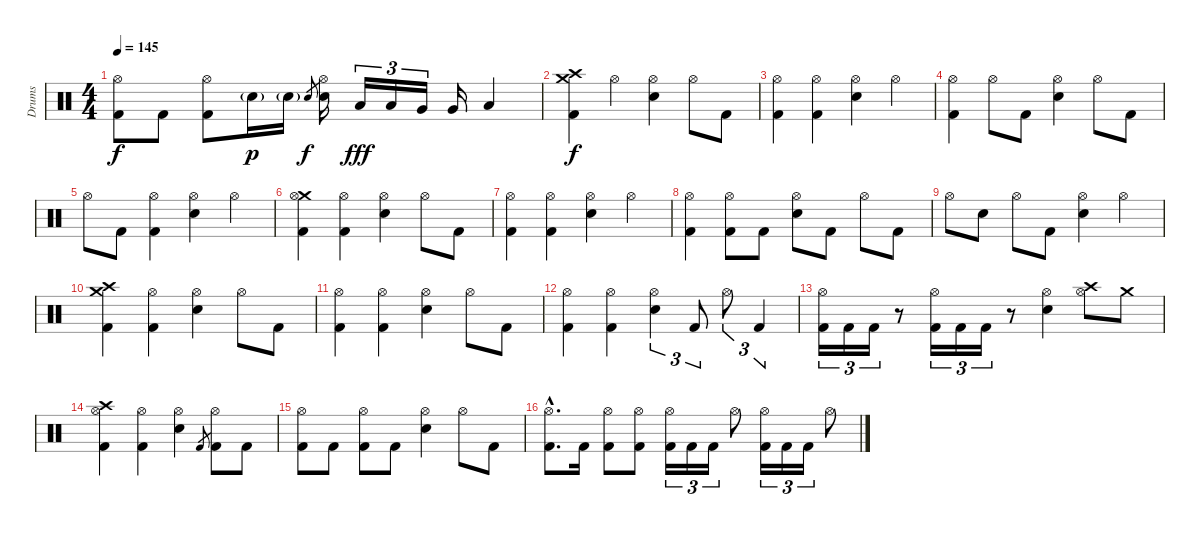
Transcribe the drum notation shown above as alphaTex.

\track ("Drums" "Drums") {instrument percussion}
\staff {score}
\articulation defaults
\ts (4 4)
\tempo 145
\clef neutral
\ks c
("Hi-Hat (open)" "Kick (hit) 2").8{dy f} "Kick (hit) 2".8 ("Hi-Hat (open)" "Kick (hit) 2").8 "Electric Snare (hit)"{g}.16{dy p} "Electric Snare (hit)"{g}.16 "Electric Snare (hit)".8{gr dy f} ("Hi-Hat (open)" "Electric Snare (hit)").16 "Low Tom (hit)".16{tu (3 2) dy fff} "Low Tom (hit)".16{tu (3 2)} "Very Low Tom (hit)".16{tu (3 2)} "Very Low Tom (hit)".16 "Low Floor Tom (hit)".4 |
("Crash medium (hit)" "Crash high (hit)" "Kick (hit) 2").4{dy f} "Hi-Hat (open)".4 ("Hi-Hat (open)" "Electric Snare (hit)").4 "Hi-Hat (open)".8 "Kick (hit) 2".8 |
("Hi-Hat (open)" "Kick (hit) 2").4 ("Hi-Hat (open)" "Kick (hit) 2").4 ("Hi-Hat (open)" "Electric Snare (hit)").4 "Hi-Hat (open)".4 |
("Hi-Hat (open)" "Kick (hit) 2").4 "Hi-Hat (open)".8 "Kick (hit) 2".8 ("Hi-Hat (open)" "Electric Snare (hit)").4 "Hi-Hat (open)".8 "Kick (hit) 2".8 |
"Hi-Hat (open)".8 "Kick (hit) 2".8 ("Hi-Hat (open)" "Kick (hit) 2").4 ("Hi-Hat (open)" "Electric Snare (hit)").4 "Hi-Hat (open)".4 |
("Crash medium (hit)" "Hi-Hat (open)" "Kick (hit) 2").4 ("Hi-Hat (open)" "Kick (hit) 2").4 ("Hi-Hat (open)" "Electric Snare (hit)").4 "Hi-Hat (open)".8 "Kick (hit) 2".8 |
("Hi-Hat (open)" "Kick (hit) 2").4 ("Hi-Hat (open)" "Kick (hit) 2").4 ("Hi-Hat (open)" "Electric Snare (hit)").4 "Hi-Hat (open)".4 |
("Hi-Hat (open)" "Kick (hit) 2").4 ("Hi-Hat (open)" "Kick (hit) 2").8 "Kick (hit) 2".8 ("Hi-Hat (open)" "Electric Snare (hit)").8 "Kick (hit) 2".8 "Hi-Hat (open)".8 "Kick (hit) 2".8 |
"Hi-Hat (open)".8 "Electric Snare (hit)".8 "Hi-Hat (open)".8 "Kick (hit) 2".8 ("Hi-Hat (open)" "Electric Snare (hit)").4 "Hi-Hat (open)".4 |
("Crash medium (hit)" "Crash high (hit)" "Kick (hit) 2").4 ("Hi-Hat (open)" "Kick (hit) 2").4 ("Hi-Hat (open)" "Electric Snare (hit)").4 "Hi-Hat (open)".8 "Kick (hit) 2".8 |
("Hi-Hat (open)" "Kick (hit) 2").4 ("Hi-Hat (open)" "Kick (hit) 2").4 ("Hi-Hat (open)" "Electric Snare (hit)").4 "Hi-Hat (open)".8 "Kick (hit) 2".8 |
("Hi-Hat (open)" "Kick (hit) 2").4 ("Hi-Hat (open)" "Kick (hit) 2").4 ("Hi-Hat (open)" "Electric Snare (hit)").4{tu (3 2)} "Kick (hit) 2".8{tu (3 2)} "Hi-Hat (open)".8{tu (3 2)} "Kick (hit) 2".4{tu (3 2)} |
("Hi-Hat (open)" "Kick (hit) 2").16{tu (3 2)} "Kick (hit) 2".16{tu (3 2)} "Kick (hit) 2".16{tu (3 2)} r.8 ("Hi-Hat (open)" "Kick (hit) 2").16{tu (3 2)} "Kick (hit) 2".16{tu (3 2)} "Kick (hit) 2".16{tu (3 2)} r.8 ("Hi-Hat (open)" "Electric Snare (hit)").4 ("Crash high (hit)" "Hi-Hat (open)").8 "Crash medium (hit)".8 |
("Crash high (hit)" "Hi-Hat (open)" "Kick (hit) 2").4 ("Hi-Hat (open)" "Kick (hit) 2").4 ("Hi-Hat (open)" "Electric Snare (hit)").4 "Kick (hit) 2".8{gr} ("Hi-Hat (open)" "Kick (hit) 2").8 "Kick (hit) 2".8 |
("Hi-Hat (open)" "Kick (hit) 2").8 "Kick (hit) 2".8 ("Hi-Hat (open)" "Kick (hit) 2").8 "Kick (hit) 2".8 ("Hi-Hat (open)" "Electric Snare (hit)").4 "Hi-Hat (open)".8 "Kick (hit) 2".8 |
("Hi-Hat (open)"{hac} "Kick (hit) 2"{hac}).8{d} "Kick (hit) 2".16 ("Hi-Hat (open)" "Kick (hit) 2").8 ("Hi-Hat (open)" "Kick (hit) 2").8 ("Hi-Hat (open)" "Kick (hit) 2").16{tu (3 2)} "Kick (hit) 2".16{tu (3 2)} "Kick (hit) 2".16{tu (3 2)} "Hi-Hat (open)".8 ("Hi-Hat (open)" "Kick (hit) 2").16{tu (3 2)} "Kick (hit) 2".16{tu (3 2)} "Kick (hit) 2".16{tu (3 2)} "Hi-Hat (open)".8
